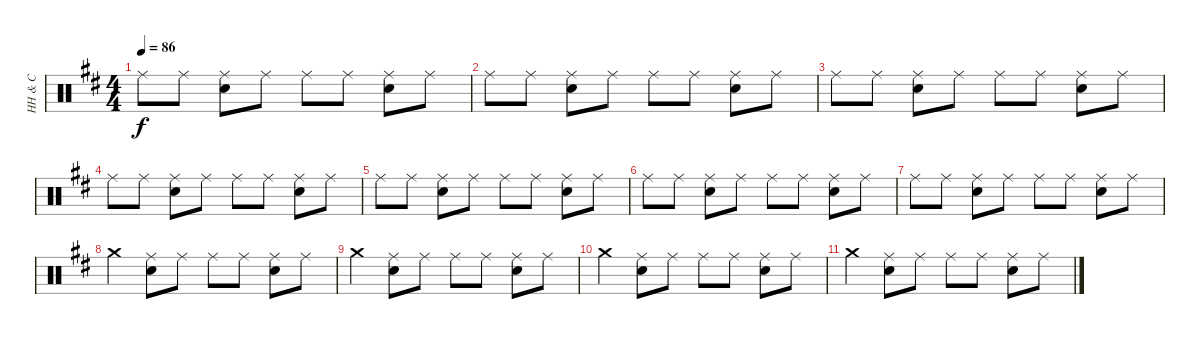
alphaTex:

\track ("HH & C" "HH & C") {instrument percussion}
\staff {score}
\articulation defaults
\ts (4 4)
\tempo 86
\clef neutral
\ks d "Ride (middle)".8{dy f} "Ride (middle)".8
("Ride (middle)" "Hand Clap (hit)").8 "Ride (middle)".8 "Ride (middle)".8 "Ride (middle)".8 ("Ride (middle)" "Hand Clap (hit)").8 "Ride (middle)".8 |
"Ride (middle)".8 "Ride (middle)".8 ("Ride (middle)" "Hand Clap (hit)").8 "Ride (middle)".8 "Ride (middle)".8 "Ride (middle)".8 ("Ride (middle)" "Hand Clap (hit)").8 "Ride (middle)".8 |
"Ride (middle)".8 "Ride (middle)".8 ("Ride (middle)" "Hand Clap (hit)").8 "Ride (middle)".8 "Ride (middle)".8 "Ride (middle)".8 ("Ride (middle)" "Hand Clap (hit)").8 "Ride (middle)".8 |
"Ride (middle)".8 "Ride (middle)".8 ("Ride (middle)" "Hand Clap (hit)").8 "Ride (middle)".8 "Ride (middle)".8 "Ride (middle)".8 ("Ride (middle)" "Hand Clap (hit)").8 "Ride (middle)".8 |
"Ride (middle)".8 "Ride (middle)".8 ("Ride (middle)" "Hand Clap (hit)").8 "Ride (middle)".8 "Ride (middle)".8 "Ride (middle)".8 ("Ride (middle)" "Hand Clap (hit)").8 "Ride (middle)".8 |
"Ride (middle)".8 "Ride (middle)".8 ("Ride (middle)" "Hand Clap (hit)").8 "Ride (middle)".8 "Ride (middle)".8 "Ride (middle)".8 ("Ride (middle)" "Hand Clap (hit)").8 "Ride (middle)".8 |
"Ride (middle)".8 "Ride (middle)".8 ("Ride (middle)" "Hand Clap (hit)").8 "Ride (middle)".8 "Ride (middle)".8 "Ride (middle)".8 ("Ride (middle)" "Hand Clap (hit)").8 "Ride (middle)".8 |
"Crash medium (hit)".4 ("Ride (middle)" "Hand Clap (hit)").8 "Ride (middle)".8 "Ride (middle)".8 "Ride (middle)".8 ("Ride (middle)" "Hand Clap (hit)").8 "Ride (middle)".8 |
"Crash medium (hit)".4 ("Ride (middle)" "Hand Clap (hit)").8 "Ride (middle)".8 "Ride (middle)".8 "Ride (middle)".8 ("Ride (middle)" "Hand Clap (hit)").8 "Ride (middle)".8 |
"Crash medium (hit)".4 ("Ride (middle)" "Hand Clap (hit)").8 "Ride (middle)".8 "Ride (middle)".8 "Ride (middle)".8 ("Ride (middle)" "Hand Clap (hit)").8 "Ride (middle)".8 |
"Crash medium (hit)".4 ("Ride (middle)" "Hand Clap (hit)").8 "Ride (middle)".8 "Ride (middle)".8 "Ride (middle)".8 ("Ride (middle)" "Hand Clap (hit)").8 "Ride (middle)".8
